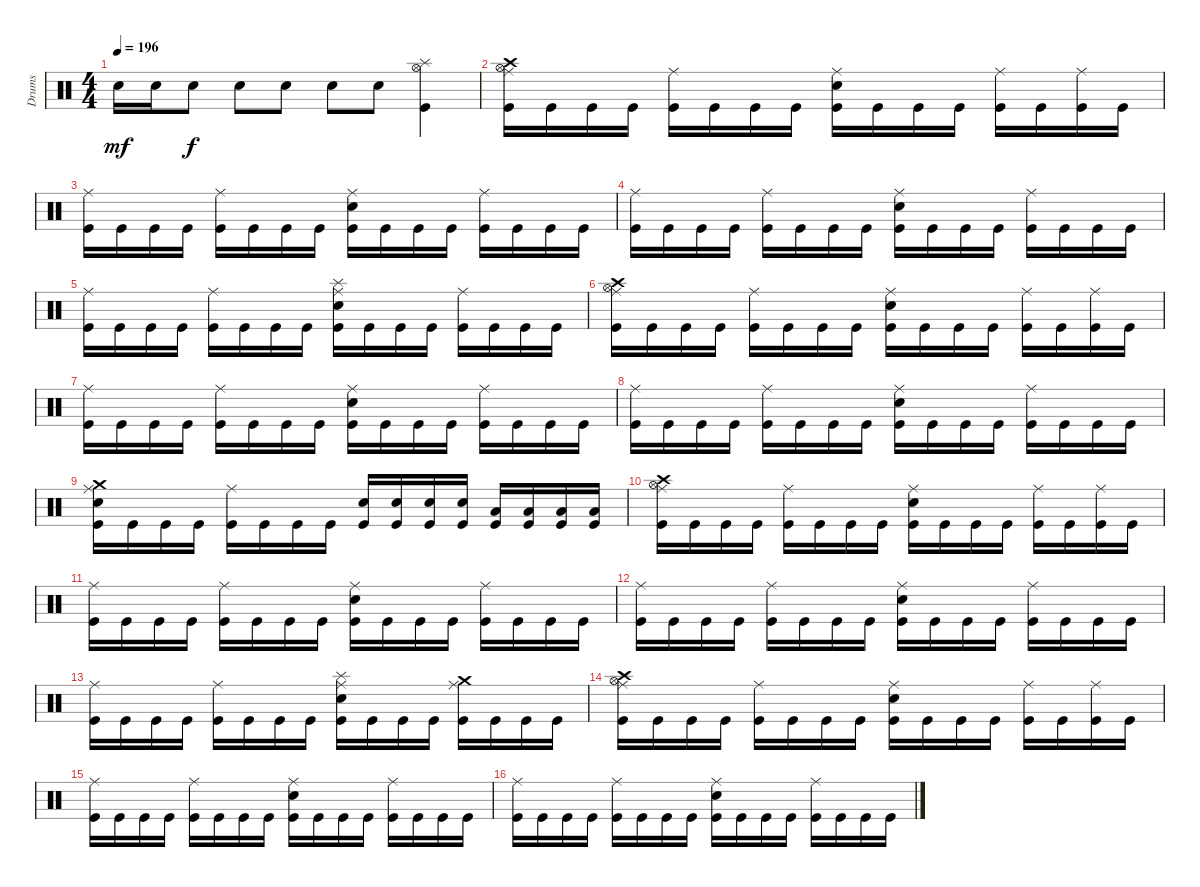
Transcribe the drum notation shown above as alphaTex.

\track ("Drums" "Drums") {instrument percussion}
\staff {score}
\articulation defaults
\ts (4 4)
\tempo 196
\clef neutral
\ks c "Electric Snare (hit)".16{dy mf} "Electric Snare (hit)".16 "Electric Snare (hit)".8{dy f} "Electric Snare (hit)".8 "Electric Snare (hit)".8 "Electric Snare (hit)".8 "Electric Snare (hit)".8
("Splash (hit)" "Hi-Hat (open)" "Kick (hit)").4 |
("Crash high (hit)" "Hi-Hat (open)" "Ride (middle)" "Kick (hit)").16 "Kick (hit)".16 "Kick (hit)".16 "Kick (hit)".16 ("Ride (middle)" "Kick (hit)").16 "Kick (hit)".16 "Kick (hit)".16 "Kick (hit)".16 ("Ride (middle)" "Electric Snare (hit)" "Kick (hit)").16 "Kick (hit)".16 "Kick (hit)".16 "Kick (hit)".16 ("Ride (middle)" "Kick (hit)").16 "Kick (hit)".16 ("Ride (middle)" "Kick (hit)").16 "Kick (hit)".16 |
("Ride (middle)" "Kick (hit)").16 "Kick (hit)".16 "Kick (hit)".16 "Kick (hit)".16 ("Ride (middle)" "Kick (hit)").16 "Kick (hit)".16 "Kick (hit)".16 "Kick (hit)".16 ("Ride (middle)" "Electric Snare (hit)" "Kick (hit)").16 "Kick (hit)".16 "Kick (hit)".16 "Kick (hit)".16 ("Ride (middle)" "Kick (hit)").16 "Kick (hit)".16 "Kick (hit)".16 "Kick (hit)".16 |
("Ride (middle)" "Kick (hit)").16 "Kick (hit)".16 "Kick (hit)".16 "Kick (hit)".16 ("Ride (middle)" "Kick (hit)").16 "Kick (hit)".16 "Kick (hit)".16 "Kick (hit)".16 ("Ride (middle)" "Electric Snare (hit)" "Kick (hit)").16 "Kick (hit)".16 "Kick (hit)".16 "Kick (hit)".16 ("Ride (middle)" "Kick (hit)").16 "Kick (hit)".16 "Kick (hit)".16 "Kick (hit)".16 |
("Ride (middle)" "Kick (hit)").16 "Kick (hit)".16 "Kick (hit)".16 "Kick (hit)".16 ("Ride (middle)" "Kick (hit)").16 "Kick (hit)".16 "Kick (hit)".16 "Kick (hit)".16 ("Ride (middle)" "Splash (hit)" "Electric Snare (hit)" "Kick (hit)").16 "Kick (hit)".16 "Kick (hit)".16 "Kick (hit)".16 ("Ride (middle)" "Kick (hit)").16 "Kick (hit)".16 "Kick (hit)".16 "Kick (hit)".16 |
("Crash high (hit)" "Hi-Hat (open)" "Ride (middle)" "Kick (hit)").16 "Kick (hit)".16 "Kick (hit)".16 "Kick (hit)".16 ("Ride (middle)" "Kick (hit)").16 "Kick (hit)".16 "Kick (hit)".16 "Kick (hit)".16 ("Ride (middle)" "Electric Snare (hit)" "Kick (hit)").16 "Kick (hit)".16 "Kick (hit)".16 "Kick (hit)".16 ("Ride (middle)" "Kick (hit)").16 "Kick (hit)".16 ("Ride (middle)" "Kick (hit)").16 "Kick (hit)".16 |
("Ride (middle)" "Kick (hit)").16 "Kick (hit)".16 "Kick (hit)".16 "Kick (hit)".16 ("Ride (middle)" "Kick (hit)").16 "Kick (hit)".16 "Kick (hit)".16 "Kick (hit)".16 ("Ride (middle)" "Electric Snare (hit)" "Kick (hit)").16 "Kick (hit)".16 "Kick (hit)".16 "Kick (hit)".16 ("Ride (middle)" "Kick (hit)").16 "Kick (hit)".16 "Kick (hit)".16 "Kick (hit)".16 |
("Ride (middle)" "Kick (hit)").16 "Kick (hit)".16 "Kick (hit)".16 "Kick (hit)".16 ("Ride (middle)" "Kick (hit)").16 "Kick (hit)".16 "Kick (hit)".16 "Kick (hit)".16 ("Ride (middle)" "Electric Snare (hit)" "Kick (hit)").16 "Kick (hit)".16 "Kick (hit)".16 "Kick (hit)".16 ("Ride (middle)" "Kick (hit)").16 "Kick (hit)".16 "Kick (hit)".16 "Kick (hit)".16 |
("Crash medium (hit)" "Ride (middle)" "Electric Snare (hit)" "Kick (hit)").16 "Kick (hit)".16 "Kick (hit)".16 "Kick (hit)".16 ("Ride (middle)" "Kick (hit)").16 "Kick (hit)".16 "Kick (hit)".16 "Kick (hit)".16 ("Electric Snare (hit)" "Kick (hit)").16 ("Electric Snare (hit)" "Kick (hit)").16 ("Electric Snare (hit)" "Kick (hit)").16 ("Electric Snare (hit)" "Kick (hit)").16 ("Low Tom (hit)" "Kick (hit)").16 ("Low Tom (hit)" "Kick (hit)").16 ("Low Tom (hit)" "Kick (hit)").16 ("Low Tom (hit)" "Kick (hit)").16 |
("Crash high (hit)" "Hi-Hat (open)" "Ride (middle)" "Kick (hit)").16 "Kick (hit)".16 "Kick (hit)".16 "Kick (hit)".16 ("Ride (middle)" "Kick (hit)").16 "Kick (hit)".16 "Kick (hit)".16 "Kick (hit)".16 ("Ride (middle)" "Electric Snare (hit)" "Kick (hit)").16 "Kick (hit)".16 "Kick (hit)".16 "Kick (hit)".16 ("Ride (middle)" "Kick (hit)").16 "Kick (hit)".16 ("Ride (middle)" "Kick (hit)").16 "Kick (hit)".16 |
("Ride (middle)" "Kick (hit)").16 "Kick (hit)".16 "Kick (hit)".16 "Kick (hit)".16 ("Ride (middle)" "Kick (hit)").16 "Kick (hit)".16 "Kick (hit)".16 "Kick (hit)".16 ("Ride (middle)" "Electric Snare (hit)" "Kick (hit)").16 "Kick (hit)".16 "Kick (hit)".16 "Kick (hit)".16 ("Ride (middle)" "Kick (hit)").16 "Kick (hit)".16 "Kick (hit)".16 "Kick (hit)".16 |
("Ride (middle)" "Kick (hit)").16 "Kick (hit)".16 "Kick (hit)".16 "Kick (hit)".16 ("Ride (middle)" "Kick (hit)").16 "Kick (hit)".16 "Kick (hit)".16 "Kick (hit)".16 ("Ride (middle)" "Electric Snare (hit)" "Kick (hit)").16 "Kick (hit)".16 "Kick (hit)".16 "Kick (hit)".16 ("Ride (middle)" "Kick (hit)").16 "Kick (hit)".16 "Kick (hit)".16 "Kick (hit)".16 |
("Ride (middle)" "Kick (hit)").16 "Kick (hit)".16 "Kick (hit)".16 "Kick (hit)".16 ("Ride (middle)" "Kick (hit)").16 "Kick (hit)".16 "Kick (hit)".16 "Kick (hit)".16 ("Ride (middle)" "Splash (hit)" "Electric Snare (hit)" "Kick (hit)").16 "Kick (hit)".16 "Kick (hit)".16 "Kick (hit)".16 ("Crash medium (hit)" "Ride (middle)" "Kick (hit)").16 "Kick (hit)".16 "Kick (hit)".16 "Kick (hit)".16 |
("Crash high (hit)" "Hi-Hat (open)" "Ride (middle)" "Kick (hit)").16 "Kick (hit)".16 "Kick (hit)".16 "Kick (hit)".16 ("Ride (middle)" "Kick (hit)").16 "Kick (hit)".16 "Kick (hit)".16 "Kick (hit)".16 ("Ride (middle)" "Electric Snare (hit)" "Kick (hit)").16 "Kick (hit)".16 "Kick (hit)".16 "Kick (hit)".16 ("Ride (middle)" "Kick (hit)").16 "Kick (hit)".16 ("Ride (middle)" "Kick (hit)").16 "Kick (hit)".16 |
("Ride (middle)" "Kick (hit)").16 "Kick (hit)".16 "Kick (hit)".16 "Kick (hit)".16 ("Ride (middle)" "Kick (hit)").16 "Kick (hit)".16 "Kick (hit)".16 "Kick (hit)".16 ("Ride (middle)" "Electric Snare (hit)" "Kick (hit)").16 "Kick (hit)".16 "Kick (hit)".16 "Kick (hit)".16 ("Ride (middle)" "Kick (hit)").16 "Kick (hit)".16 "Kick (hit)".16 "Kick (hit)".16 |
("Ride (middle)" "Kick (hit)").16 "Kick (hit)".16 "Kick (hit)".16 "Kick (hit)".16 ("Ride (middle)" "Kick (hit)").16 "Kick (hit)".16 "Kick (hit)".16 "Kick (hit)".16 ("Ride (middle)" "Electric Snare (hit)" "Kick (hit)").16 "Kick (hit)".16 "Kick (hit)".16 "Kick (hit)".16 ("Ride (middle)" "Kick (hit)").16 "Kick (hit)".16 "Kick (hit)".16 "Kick (hit)".16
